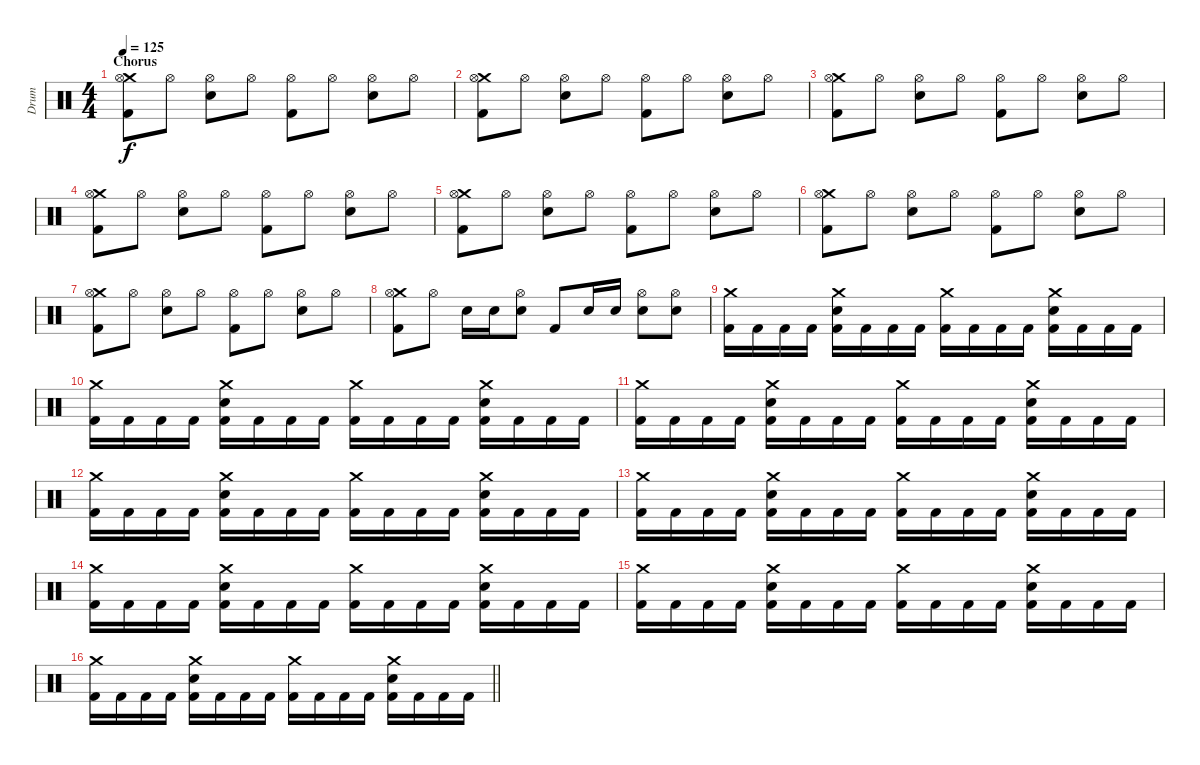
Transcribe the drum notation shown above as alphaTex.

\track ("Drum" "Drum") {instrument percussion}
\staff {score}
\articulation defaults
\ts (4 4)
\section ("" "Chorus")
\tempo 125
\clef neutral
\ks c
("Crash medium (hit)" "Hi-Hat (open)" "Kick (hit) 2").8{dy f} "Hi-Hat (open)".8 ("Hi-Hat (open)" "Electric Snare (hit)").8 "Hi-Hat (open)".8 ("Hi-Hat (open)" "Kick (hit) 2").8 "Hi-Hat (open)".8 ("Hi-Hat (open)" "Electric Snare (hit)").8 "Hi-Hat (open)".8 |
("Crash medium (hit)" "Hi-Hat (open)" "Kick (hit) 2").8 "Hi-Hat (open)".8 ("Hi-Hat (open)" "Electric Snare (hit)").8 "Hi-Hat (open)".8 ("Hi-Hat (open)" "Kick (hit) 2").8 "Hi-Hat (open)".8 ("Hi-Hat (open)" "Electric Snare (hit)").8 "Hi-Hat (open)".8 |
("Crash medium (hit)" "Hi-Hat (open)" "Kick (hit) 2").8 "Hi-Hat (open)".8 ("Hi-Hat (open)" "Electric Snare (hit)").8 "Hi-Hat (open)".8 ("Hi-Hat (open)" "Kick (hit) 2").8 "Hi-Hat (open)".8 ("Hi-Hat (open)" "Electric Snare (hit)").8 "Hi-Hat (open)".8 |
("Crash medium (hit)" "Hi-Hat (open)" "Kick (hit) 2").8 "Hi-Hat (open)".8 ("Hi-Hat (open)" "Electric Snare (hit)").8 "Hi-Hat (open)".8 ("Hi-Hat (open)" "Kick (hit) 2").8 "Hi-Hat (open)".8 ("Hi-Hat (open)" "Electric Snare (hit)").8 "Hi-Hat (open)".8 |
("Crash medium (hit)" "Hi-Hat (open)" "Kick (hit) 2").8 "Hi-Hat (open)".8 ("Hi-Hat (open)" "Electric Snare (hit)").8 "Hi-Hat (open)".8 ("Hi-Hat (open)" "Kick (hit) 2").8 "Hi-Hat (open)".8 ("Hi-Hat (open)" "Electric Snare (hit)").8 "Hi-Hat (open)".8 |
("Crash medium (hit)" "Hi-Hat (open)" "Kick (hit) 2").8 "Hi-Hat (open)".8 ("Hi-Hat (open)" "Electric Snare (hit)").8 "Hi-Hat (open)".8 ("Hi-Hat (open)" "Kick (hit) 2").8 "Hi-Hat (open)".8 ("Hi-Hat (open)" "Electric Snare (hit)").8 "Hi-Hat (open)".8 |
("Crash medium (hit)" "Hi-Hat (open)" "Kick (hit) 2").8 "Hi-Hat (open)".8 ("Hi-Hat (open)" "Electric Snare (hit)").8 "Hi-Hat (open)".8 ("Hi-Hat (open)" "Kick (hit) 2").8 "Hi-Hat (open)".8 ("Hi-Hat (open)" "Electric Snare (hit)").8 "Hi-Hat (open)".8 |
("Crash medium (hit)" "Hi-Hat (open)" "Kick (hit) 2").8 "Hi-Hat (open)".8 "Electric Snare (hit)".16 "Electric Snare (hit)".16 ("Hi-Hat (open)" "Electric Snare (hit)").8 "Kick (hit) 2".8 "Electric Snare (hit)".16 "Electric Snare (hit)".16 ("Hi-Hat (open)" "Electric Snare (hit)").8 ("Hi-Hat (open)" "Electric Snare (hit)").8 |
("Crash medium (hit)" "Kick (hit) 2").16 "Kick (hit) 2".16 "Kick (hit) 2".16 "Kick (hit) 2".16 ("Crash medium (hit)" "Electric Snare (hit)" "Kick (hit) 2").16 "Kick (hit) 2".16 "Kick (hit) 2".16 "Kick (hit) 2".16 ("Crash medium (hit)" "Kick (hit) 2").16 "Kick (hit) 2".16 "Kick (hit) 2".16 "Kick (hit) 2".16 ("Crash medium (hit)" "Electric Snare (hit)" "Kick (hit) 2").16 "Kick (hit) 2".16 "Kick (hit) 2".16 "Kick (hit) 2".16 |
("Crash medium (hit)" "Kick (hit) 2").16 "Kick (hit) 2".16 "Kick (hit) 2".16 "Kick (hit) 2".16 ("Crash medium (hit)" "Electric Snare (hit)" "Kick (hit) 2").16 "Kick (hit) 2".16 "Kick (hit) 2".16 "Kick (hit) 2".16 ("Crash medium (hit)" "Kick (hit) 2").16 "Kick (hit) 2".16 "Kick (hit) 2".16 "Kick (hit) 2".16 ("Crash medium (hit)" "Electric Snare (hit)" "Kick (hit) 2").16 "Kick (hit) 2".16 "Kick (hit) 2".16 "Kick (hit) 2".16 |
("Crash medium (hit)" "Kick (hit) 2").16 "Kick (hit) 2".16 "Kick (hit) 2".16 "Kick (hit) 2".16 ("Crash medium (hit)" "Electric Snare (hit)" "Kick (hit) 2").16 "Kick (hit) 2".16 "Kick (hit) 2".16 "Kick (hit) 2".16 ("Crash medium (hit)" "Kick (hit) 2").16 "Kick (hit) 2".16 "Kick (hit) 2".16 "Kick (hit) 2".16 ("Crash medium (hit)" "Electric Snare (hit)" "Kick (hit) 2").16 "Kick (hit) 2".16 "Kick (hit) 2".16 "Kick (hit) 2".16 |
("Crash medium (hit)" "Kick (hit) 2").16 "Kick (hit) 2".16 "Kick (hit) 2".16 "Kick (hit) 2".16 ("Crash medium (hit)" "Electric Snare (hit)" "Kick (hit) 2").16 "Kick (hit) 2".16 "Kick (hit) 2".16 "Kick (hit) 2".16 ("Crash medium (hit)" "Kick (hit) 2").16 "Kick (hit) 2".16 "Kick (hit) 2".16 "Kick (hit) 2".16 ("Crash medium (hit)" "Electric Snare (hit)" "Kick (hit) 2").16 "Kick (hit) 2".16 "Kick (hit) 2".16 "Kick (hit) 2".16 |
("Crash medium (hit)" "Kick (hit) 2").16 "Kick (hit) 2".16 "Kick (hit) 2".16 "Kick (hit) 2".16 ("Crash medium (hit)" "Electric Snare (hit)" "Kick (hit) 2").16 "Kick (hit) 2".16 "Kick (hit) 2".16 "Kick (hit) 2".16 ("Crash medium (hit)" "Kick (hit) 2").16 "Kick (hit) 2".16 "Kick (hit) 2".16 "Kick (hit) 2".16 ("Crash medium (hit)" "Electric Snare (hit)" "Kick (hit) 2").16 "Kick (hit) 2".16 "Kick (hit) 2".16 "Kick (hit) 2".16 |
("Crash medium (hit)" "Kick (hit) 2").16 "Kick (hit) 2".16 "Kick (hit) 2".16 "Kick (hit) 2".16 ("Crash medium (hit)" "Electric Snare (hit)" "Kick (hit) 2").16 "Kick (hit) 2".16 "Kick (hit) 2".16 "Kick (hit) 2".16 ("Crash medium (hit)" "Kick (hit) 2").16 "Kick (hit) 2".16 "Kick (hit) 2".16 "Kick (hit) 2".16 ("Crash medium (hit)" "Electric Snare (hit)" "Kick (hit) 2").16 "Kick (hit) 2".16 "Kick (hit) 2".16 "Kick (hit) 2".16 |
("Crash medium (hit)" "Kick (hit) 2").16 "Kick (hit) 2".16 "Kick (hit) 2".16 "Kick (hit) 2".16 ("Crash medium (hit)" "Electric Snare (hit)" "Kick (hit) 2").16 "Kick (hit) 2".16 "Kick (hit) 2".16 "Kick (hit) 2".16 ("Crash medium (hit)" "Kick (hit) 2").16 "Kick (hit) 2".16 "Kick (hit) 2".16 "Kick (hit) 2".16 ("Crash medium (hit)" "Electric Snare (hit)" "Kick (hit) 2").16 "Kick (hit) 2".16 "Kick (hit) 2".16 "Kick (hit) 2".16 |
\barLineRight lightlight
("Crash medium (hit)" "Kick (hit) 2").16 "Kick (hit) 2".16 "Kick (hit) 2".16 "Kick (hit) 2".16 ("Crash medium (hit)" "Electric Snare (hit)" "Kick (hit) 2").16 "Kick (hit) 2".16 "Kick (hit) 2".16 "Kick (hit) 2".16 ("Crash medium (hit)" "Kick (hit) 2").16 "Kick (hit) 2".16 "Kick (hit) 2".16 "Kick (hit) 2".16 ("Crash medium (hit)" "Electric Snare (hit)" "Kick (hit) 2").16 "Kick (hit) 2".16 "Kick (hit) 2".16 "Kick (hit) 2".16
